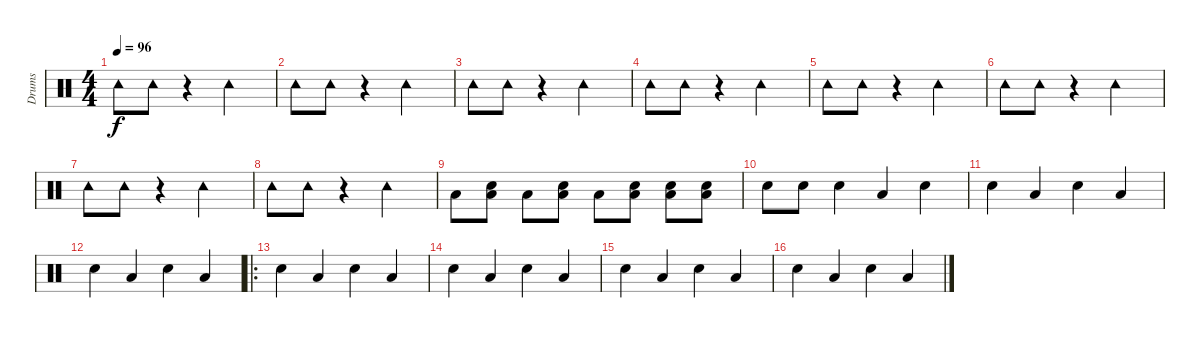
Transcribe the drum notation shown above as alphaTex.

\track ("Drums" "Drums") {instrument percussion}
\staff {score}
\articulation defaults
\ts (4 4)
\tempo 96
\clef neutral
\ks c "Tambourine (hit)".8{dy f} "Tambourine (hit)".8
r.4 "Tambourine (hit)".2 |
"Tambourine (hit)".8 "Tambourine (hit)".8 r.4 "Tambourine (hit)".2 |
"Tambourine (hit)".8 "Tambourine (hit)".8 r.4 "Tambourine (hit)".2 |
"Tambourine (hit)".8 "Tambourine (hit)".8 r.4 "Tambourine (hit)".2 |
"Tambourine (hit)".8 "Tambourine (hit)".8 r.4 "Tambourine (hit)".2 |
"Tambourine (hit)".8 "Tambourine (hit)".8 r.4 "Tambourine (hit)".2 |
"Tambourine (hit)".8 "Tambourine (hit)".8 r.4 "Tambourine (hit)".2 |
"Tambourine (hit)".8 "Tambourine (hit)".8 r.4 "Tambourine (hit)".2 |
"Low Floor Tom (hit)".8 ("Snare (hit) 2" "Low Floor Tom (hit)").8 "Low Floor Tom (hit)".8 ("Snare (hit) 2" "Low Floor Tom (hit)").8 "Low Floor Tom (hit)".8 ("Snare (hit) 2" "Low Floor Tom (hit)").8 ("Snare (hit) 2" "Low Floor Tom (hit)").8 ("Snare (hit) 2" "Low Floor Tom (hit)").8 |
"Snare (hit) 2".8 "Snare (hit) 2".8 "Snare (hit) 2".4 "Low Floor Tom (hit)".4 "Snare (hit) 2".4 |
"Snare (hit) 2".4 "Low Floor Tom (hit)".4 "Snare (hit) 2".4 "Low Floor Tom (hit)".4 |
"Snare (hit) 2".4 "Low Floor Tom (hit)".4 "Snare (hit) 2".4 "Low Floor Tom (hit)".4 |
\ro "Snare (hit) 2".4 "Low Floor Tom (hit)".4 "Snare (hit) 2".4 "Low Floor Tom (hit)".4
|
"Snare (hit) 2".4 "Low Floor Tom (hit)".4 "Snare (hit) 2".4 "Low Floor Tom (hit)".4 |
"Snare (hit) 2".4 "Low Floor Tom (hit)".4 "Snare (hit) 2".4 "Low Floor Tom (hit)".4 |
"Snare (hit) 2".4 "Low Floor Tom (hit)".4 "Snare (hit) 2".4 "Low Floor Tom (hit)".4
